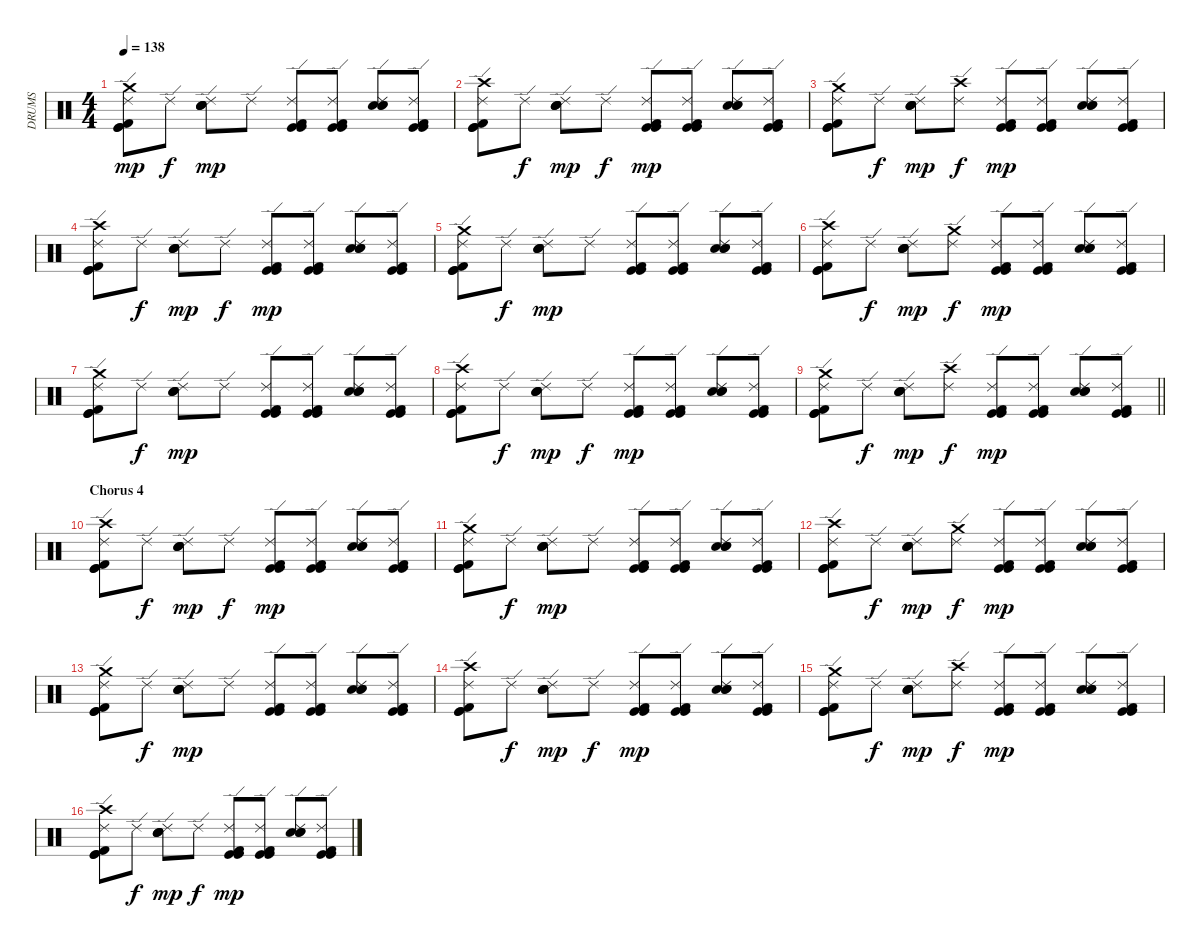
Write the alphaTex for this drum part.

\track ("DRUMS" "DRUMS") {instrument percussion}
\staff {score}
\articulation defaults
\ts (4 4)
\tempo 138
\clef neutral
\ks c
("Ride (edge) 2" "Kick (hit) 2" "Kick (hit)" "Kick (hit)" "Crash medium (hit)").8{dy mp} "Ride (edge) 2".8{dy f} ("Ride (edge) 2" "Electric Snare (hit)" "Snare (hit) 2" "Snare (hit) 2").8{dy mp} "Ride (edge) 2".8 ("Ride (edge) 2" "Kick (hit) 2" "Kick (hit)" "Kick (hit)").8 ("Ride (edge) 2" "Kick (hit) 2" "Kick (hit)" "Kick (hit)").8 ("Ride (edge) 2" "Electric Snare (hit)" "Snare (hit) 2" "Snare (hit) 2").8 ("Ride (edge) 2" "Kick (hit) 2" "Kick (hit)" "Kick (hit)").8 |
("Ride (edge) 2" "Kick (hit) 2" "Kick (hit)" "Kick (hit)" "Crash high (hit)").8 "Ride (edge) 2".8{dy f} ("Ride (edge) 2" "Electric Snare (hit)" "Snare (hit) 2" "Snare (hit) 2").8{dy mp} "Ride (edge) 2".8{dy f} ("Ride (edge) 2" "Kick (hit) 2" "Kick (hit)" "Kick (hit)").8{dy mp} ("Ride (edge) 2" "Kick (hit) 2" "Kick (hit)" "Kick (hit)").8 ("Ride (edge) 2" "Electric Snare (hit)" "Snare (hit) 2" "Snare (hit) 2").8 ("Ride (edge) 2" "Kick (hit) 2" "Kick (hit)" "Kick (hit)").8 |
("Ride (edge) 2" "Kick (hit) 2" "Kick (hit)" "Kick (hit)" "Crash medium (hit)").8 "Ride (edge) 2".8{dy f} ("Ride (edge) 2" "Electric Snare (hit)" "Snare (hit) 2" "Snare (hit) 2").8{dy mp} ("Ride (edge) 2" "Crash high (hit)").8{dy f} ("Ride (edge) 2" "Kick (hit) 2" "Kick (hit)" "Kick (hit)").8{dy mp} ("Ride (edge) 2" "Kick (hit) 2" "Kick (hit)" "Kick (hit)").8 ("Ride (edge) 2" "Electric Snare (hit)" "Snare (hit) 2" "Snare (hit) 2").8 ("Ride (edge) 2" "Kick (hit) 2" "Kick (hit)" "Kick (hit)").8 |
("Ride (edge) 2" "Kick (hit) 2" "Kick (hit)" "Kick (hit)" "Crash high (hit)").8 "Ride (edge) 2".8{dy f} ("Ride (edge) 2" "Electric Snare (hit)" "Snare (hit) 2" "Snare (hit) 2").8{dy mp} "Ride (edge) 2".8{dy f} ("Ride (edge) 2" "Kick (hit) 2" "Kick (hit)" "Kick (hit)").8{dy mp} ("Ride (edge) 2" "Kick (hit) 2" "Kick (hit)" "Kick (hit)").8 ("Ride (edge) 2" "Electric Snare (hit)" "Snare (hit) 2" "Snare (hit) 2").8 ("Ride (edge) 2" "Kick (hit) 2" "Kick (hit)" "Kick (hit)").8 |
("Ride (edge) 2" "Kick (hit) 2" "Kick (hit)" "Kick (hit)" "Crash medium (hit)").8 "Ride (edge) 2".8{dy f} ("Ride (edge) 2" "Electric Snare (hit)" "Snare (hit) 2" "Snare (hit) 2").8{dy mp} "Ride (edge) 2".8 ("Ride (edge) 2" "Kick (hit) 2" "Kick (hit)" "Kick (hit)").8 ("Ride (edge) 2" "Kick (hit) 2" "Kick (hit)" "Kick (hit)").8 ("Ride (edge) 2" "Electric Snare (hit)" "Snare (hit) 2" "Snare (hit) 2").8 ("Ride (edge) 2" "Kick (hit) 2" "Kick (hit)" "Kick (hit)").8 |
("Ride (edge) 2" "Kick (hit) 2" "Kick (hit)" "Kick (hit)" "Crash high (hit)").8 "Ride (edge) 2".8{dy f} ("Ride (edge) 2" "Electric Snare (hit)" "Snare (hit) 2" "Snare (hit) 2").8{dy mp} ("Ride (edge) 2" "Crash medium (hit)").8{dy f} ("Ride (edge) 2" "Kick (hit) 2" "Kick (hit)" "Kick (hit)").8{dy mp} ("Ride (edge) 2" "Kick (hit) 2" "Kick (hit)" "Kick (hit)").8 ("Ride (edge) 2" "Electric Snare (hit)" "Snare (hit) 2" "Snare (hit) 2").8 ("Ride (edge) 2" "Kick (hit) 2" "Kick (hit)" "Kick (hit)").8 |
("Ride (edge) 2" "Kick (hit) 2" "Kick (hit)" "Kick (hit)" "Crash medium (hit)").8 "Ride (edge) 2".8{dy f} ("Ride (edge) 2" "Electric Snare (hit)" "Snare (hit) 2" "Snare (hit) 2").8{dy mp} "Ride (edge) 2".8 ("Ride (edge) 2" "Kick (hit) 2" "Kick (hit)" "Kick (hit)").8 ("Ride (edge) 2" "Kick (hit) 2" "Kick (hit)" "Kick (hit)").8 ("Ride (edge) 2" "Electric Snare (hit)" "Snare (hit) 2" "Snare (hit) 2").8 ("Ride (edge) 2" "Kick (hit) 2" "Kick (hit)" "Kick (hit)").8 |
("Ride (edge) 2" "Kick (hit) 2" "Kick (hit)" "Kick (hit)" "Crash high (hit)").8 "Ride (edge) 2".8{dy f} ("Ride (edge) 2" "Electric Snare (hit)" "Snare (hit) 2" "Snare (hit) 2").8{dy mp} "Ride (edge) 2".8{dy f} ("Ride (edge) 2" "Kick (hit) 2" "Kick (hit)" "Kick (hit)").8{dy mp} ("Ride (edge) 2" "Kick (hit) 2" "Kick (hit)" "Kick (hit)").8 ("Ride (edge) 2" "Electric Snare (hit)" "Snare (hit) 2" "Snare (hit) 2").8 ("Ride (edge) 2" "Kick (hit) 2" "Kick (hit)" "Kick (hit)").8 |
\barLineRight lightlight
("Ride (edge) 2" "Kick (hit) 2" "Kick (hit)" "Kick (hit)" "Crash medium (hit)").8 "Ride (edge) 2".8{dy f} ("Ride (edge) 2" "Electric Snare (hit)" "Snare (hit) 2" "Snare (hit) 2").8{dy mp} ("Ride (edge) 2" "Crash high (hit)").8{dy f} ("Ride (edge) 2" "Kick (hit) 2" "Kick (hit)" "Kick (hit)").8{dy mp} ("Ride (edge) 2" "Kick (hit) 2" "Kick (hit)" "Kick (hit)").8 ("Ride (edge) 2" "Electric Snare (hit)" "Snare (hit) 2" "Snare (hit) 2").8 ("Ride (edge) 2" "Kick (hit) 2" "Kick (hit)" "Kick (hit)").8 |
\section ("" "Chorus 4")
("Ride (edge) 2" "Kick (hit) 2" "Kick (hit)" "Kick (hit)" "Crash high (hit)").8 "Ride (edge) 2".8{dy f} ("Ride (edge) 2" "Electric Snare (hit)" "Snare (hit) 2" "Snare (hit) 2").8{dy mp} "Ride (edge) 2".8{dy f} ("Ride (edge) 2" "Kick (hit) 2" "Kick (hit)" "Kick (hit)").8{dy mp} ("Ride (edge) 2" "Kick (hit) 2" "Kick (hit)" "Kick (hit)").8 ("Ride (edge) 2" "Electric Snare (hit)" "Snare (hit) 2" "Snare (hit) 2").8 ("Ride (edge) 2" "Kick (hit) 2" "Kick (hit)" "Kick (hit)").8 |
("Ride (edge) 2" "Kick (hit) 2" "Kick (hit)" "Kick (hit)" "Crash medium (hit)").8 "Ride (edge) 2".8{dy f} ("Ride (edge) 2" "Electric Snare (hit)" "Snare (hit) 2" "Snare (hit) 2").8{dy mp} "Ride (edge) 2".8 ("Ride (edge) 2" "Kick (hit) 2" "Kick (hit)" "Kick (hit)").8 ("Ride (edge) 2" "Kick (hit) 2" "Kick (hit)" "Kick (hit)").8 ("Ride (edge) 2" "Electric Snare (hit)" "Snare (hit) 2" "Snare (hit) 2").8 ("Ride (edge) 2" "Kick (hit) 2" "Kick (hit)" "Kick (hit)").8 |
("Ride (edge) 2" "Kick (hit) 2" "Kick (hit)" "Kick (hit)" "Crash high (hit)").8 "Ride (edge) 2".8{dy f} ("Ride (edge) 2" "Electric Snare (hit)" "Snare (hit) 2" "Snare (hit) 2").8{dy mp} ("Ride (edge) 2" "Crash medium (hit)").8{dy f} ("Ride (edge) 2" "Kick (hit) 2" "Kick (hit)" "Kick (hit)").8{dy mp} ("Ride (edge) 2" "Kick (hit) 2" "Kick (hit)" "Kick (hit)").8 ("Ride (edge) 2" "Electric Snare (hit)" "Snare (hit) 2" "Snare (hit) 2").8 ("Ride (edge) 2" "Kick (hit) 2" "Kick (hit)" "Kick (hit)").8 |
("Ride (edge) 2" "Kick (hit) 2" "Kick (hit)" "Kick (hit)" "Crash medium (hit)").8 "Ride (edge) 2".8{dy f} ("Ride (edge) 2" "Electric Snare (hit)" "Snare (hit) 2" "Snare (hit) 2").8{dy mp} "Ride (edge) 2".8 ("Ride (edge) 2" "Kick (hit) 2" "Kick (hit)" "Kick (hit)").8 ("Ride (edge) 2" "Kick (hit) 2" "Kick (hit)" "Kick (hit)").8 ("Ride (edge) 2" "Electric Snare (hit)" "Snare (hit) 2" "Snare (hit) 2").8 ("Ride (edge) 2" "Kick (hit) 2" "Kick (hit)" "Kick (hit)").8 |
("Ride (edge) 2" "Kick (hit) 2" "Kick (hit)" "Kick (hit)" "Crash high (hit)").8 "Ride (edge) 2".8{dy f} ("Ride (edge) 2" "Electric Snare (hit)" "Snare (hit) 2" "Snare (hit) 2").8{dy mp} "Ride (edge) 2".8{dy f} ("Ride (edge) 2" "Kick (hit) 2" "Kick (hit)" "Kick (hit)").8{dy mp} ("Ride (edge) 2" "Kick (hit) 2" "Kick (hit)" "Kick (hit)").8 ("Ride (edge) 2" "Electric Snare (hit)" "Snare (hit) 2" "Snare (hit) 2").8 ("Ride (edge) 2" "Kick (hit) 2" "Kick (hit)" "Kick (hit)").8 |
("Ride (edge) 2" "Kick (hit) 2" "Kick (hit)" "Kick (hit)" "Crash medium (hit)").8 "Ride (edge) 2".8{dy f} ("Ride (edge) 2" "Electric Snare (hit)" "Snare (hit) 2" "Snare (hit) 2").8{dy mp} ("Ride (edge) 2" "Crash high (hit)").8{dy f} ("Ride (edge) 2" "Kick (hit) 2" "Kick (hit)" "Kick (hit)").8{dy mp} ("Ride (edge) 2" "Kick (hit) 2" "Kick (hit)" "Kick (hit)").8 ("Ride (edge) 2" "Electric Snare (hit)" "Snare (hit) 2" "Snare (hit) 2").8 ("Ride (edge) 2" "Kick (hit) 2" "Kick (hit)" "Kick (hit)").8 |
("Ride (edge) 2" "Kick (hit) 2" "Kick (hit)" "Kick (hit)" "Crash high (hit)").8 "Ride (edge) 2".8{dy f} ("Ride (edge) 2" "Electric Snare (hit)" "Snare (hit) 2" "Snare (hit) 2").8{dy mp} "Ride (edge) 2".8{dy f} ("Ride (edge) 2" "Kick (hit) 2" "Kick (hit)" "Kick (hit)").8{dy mp} ("Ride (edge) 2" "Kick (hit) 2" "Kick (hit)" "Kick (hit)").8 ("Ride (edge) 2" "Electric Snare (hit)" "Snare (hit) 2" "Snare (hit) 2").8 ("Ride (edge) 2" "Kick (hit) 2" "Kick (hit)" "Kick (hit)").8
